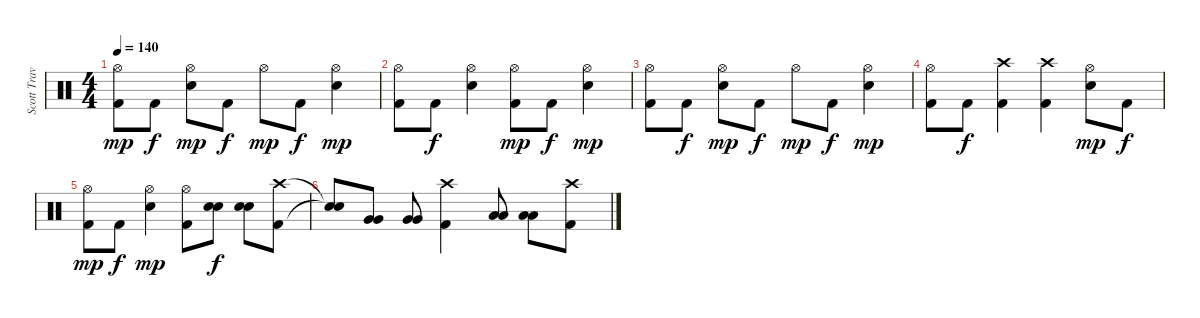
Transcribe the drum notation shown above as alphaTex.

\track ("Scott Travis" "Scott Trav") {instrument percussion}
\staff {score}
\articulation defaults
\ts (4 4)
\tempo 140
\clef neutral
\ks c
("Hi-Hat (open)" "Kick (hit) 2").8{dy mp} "Kick (hit) 2".8{dy f} ("Hi-Hat (open)" "Snare (hit) 2").8{dy mp} "Kick (hit) 2".8{dy f} "Hi-Hat (open)".8{dy mp} "Kick (hit) 2".8{dy f} ("Hi-Hat (open)" "Snare (hit) 2").4{dy mp} |
("Hi-Hat (open)" "Kick (hit) 2").8{volume 6} "Kick (hit) 2".8{dy f} ("Hi-Hat (open)" "Snare (hit) 2").4 ("Hi-Hat (open)" "Kick (hit) 2").8{dy mp} "Kick (hit) 2".8{dy f} ("Hi-Hat (open)" "Snare (hit) 2").4{dy mp} |
("Hi-Hat (open)" "Kick (hit) 2").8 "Kick (hit) 2".8{dy f} ("Hi-Hat (open)" "Snare (hit) 2").8{dy mp} "Kick (hit) 2".8{dy f} "Hi-Hat (open)".8{dy mp} "Kick (hit) 2".8{dy f} ("Hi-Hat (open)" "Snare (hit) 2").4{dy mp} |
("Hi-Hat (open)" "Kick (hit) 2").8{volume 5} "Kick (hit) 2".8{dy f} ("Crash high (hit)" "Kick (hit) 2").4 ("Crash high (hit)" "Kick (hit) 2").4 ("Hi-Hat (open)" "Snare (hit) 2").8{dy mp} "Kick (hit) 2".8{dy f} |
("Hi-Hat (open)" "Kick (hit) 2").8{dy mp volume 0} "Kick (hit) 2".8{dy f} ("Hi-Hat (open)" "Snare (hit) 2").4{dy mp} ("Hi-Hat (open)" "Kick (hit) 2").8 ("Snare (hit) 2" "Snare (hit) 2").8{dy f} ("Snare (hit) 2" "Snare (hit) 2").8 ("Crash high (hit)" "Kick (hit) 2").8 |
("Snare (hit)"{t} "Snare (hit)"{t}).8 ("Very Low Tom (hit)" "Very Low Tom (hit)").8 ("Very Low Tom (hit)" "Very Low Tom (hit)").8 ("Crash high (hit)" "Kick (hit) 2").4 ("Low Tom (hit)" "Low Tom (hit)").8 ("Low Tom (hit)" "Low Tom (hit)").8 ("Crash high (hit)" "Kick (hit) 2").8
